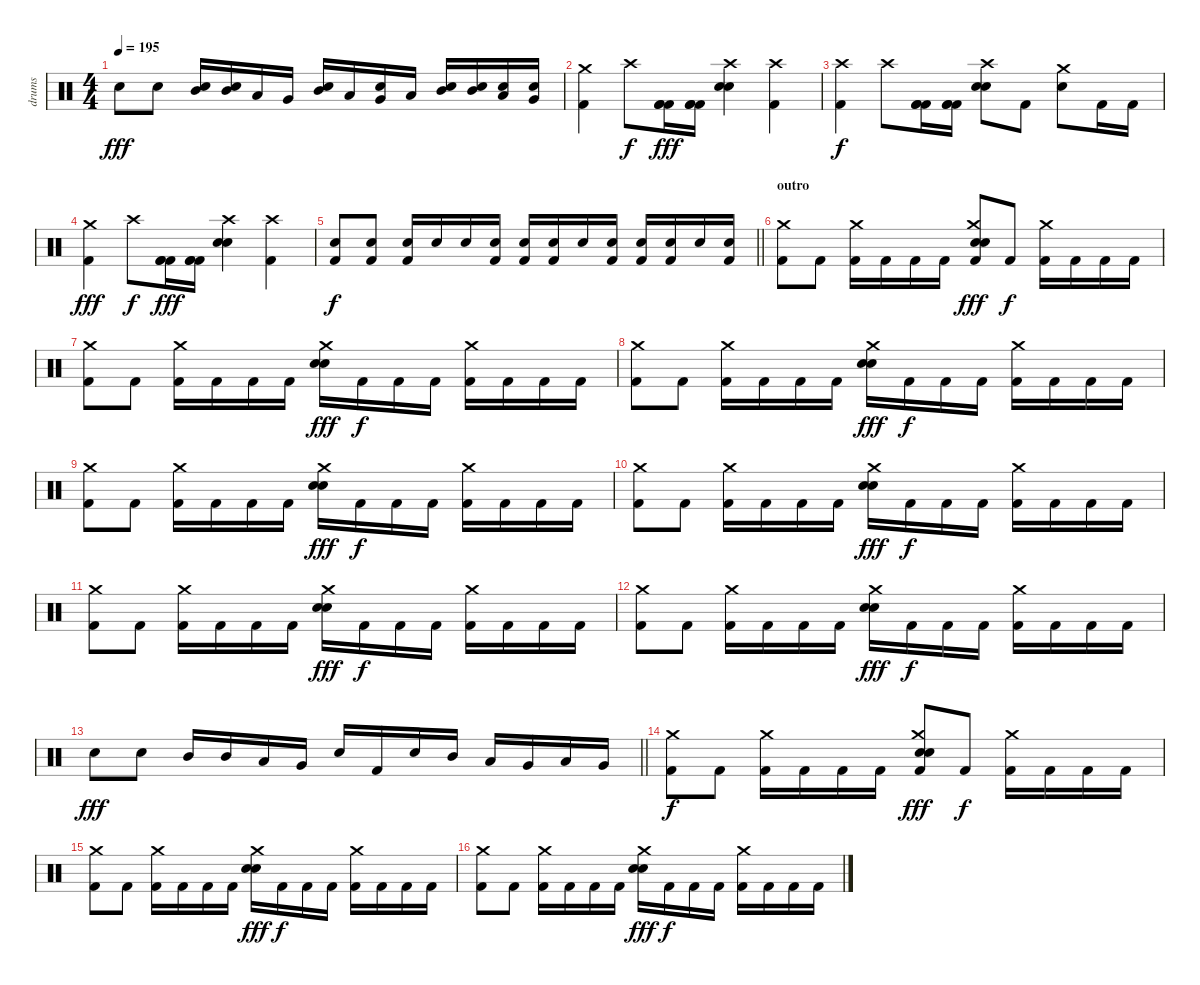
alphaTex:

\track ("drums" "drums") {instrument percussion bank 16}
\staff {score}
\articulation defaults
\ts (4 4)
\tempo 195
\clef neutral
\ks c "Electric Snare (hit)".8{dy fff} "Electric Snare (hit)".8
("Mid Tom (hit)" "Electric Snare (hit)").16 ("Mid Tom (hit)" "Electric Snare (hit)").16 "Low Tom (hit)".16 "Very Low Tom (hit)".16 ("Electric Snare (hit)" "Mid Tom (hit)").16 "Low Tom (hit)".16 ("Electric Snare (hit)" "Very Low Tom (hit)").16 "Low Tom (hit)".16 ("Mid Tom (hit)" "Electric Snare (hit)").16 ("Mid Tom (hit)" "Electric Snare (hit)").16 ("Low Tom (hit)" "Electric Snare (hit)").16 ("Very Low Tom (hit)" "Electric Snare (hit)").16 |
("Crash medium (hit)" "Kick (hit) 2").4 "Crash high (hit)".8{dy f} ("Kick (hit) 2" "Kick (hit) 2" "Kick (hit) 2").16{dy fff} ("Kick (hit) 2" "Kick (hit) 2" "Kick (hit) 2").16 ("Crash high (hit)" "Electric Snare (hit)" "Electric Snare (hit)").4 ("Crash high (hit)" "Kick (hit) 2").4 |
("Crash high (hit)" "Kick (hit) 2").4{dy f} "Crash high (hit)".8 ("Kick (hit) 2" "Kick (hit) 2" "Kick (hit) 2").16 ("Kick (hit) 2" "Kick (hit) 2" "Kick (hit) 2").16 ("Crash high (hit)" "Electric Snare (hit)" "Electric Snare (hit)").8 "Kick (hit) 2".8 ("Crash medium (hit)" "Electric Snare (hit)").8 "Kick (hit) 2".16 "Kick (hit) 2".16 |
("Crash medium (hit)" "Kick (hit) 2").4{dy fff} "Crash high (hit)".8{dy f} ("Kick (hit) 2" "Kick (hit) 2" "Kick (hit) 2").16{dy fff} ("Kick (hit) 2" "Kick (hit) 2" "Kick (hit) 2").16 ("Crash high (hit)" "Electric Snare (hit)" "Electric Snare (hit)").4 ("Crash high (hit)" "Kick (hit) 2").4 |
\barLineRight lightlight
("Electric Snare (hit)" "Kick (hit) 2").8{dy f} ("Electric Snare (hit)" "Kick (hit) 2").8 ("Electric Snare (hit)" "Kick (hit) 2").16 "Electric Snare (hit)".16 "Electric Snare (hit)".16 ("Electric Snare (hit)" "Kick (hit) 2").16 ("Electric Snare (hit)" "Kick (hit) 2").16 ("Electric Snare (hit)" "Kick (hit) 2").16 "Electric Snare (hit)".16 ("Electric Snare (hit)" "Kick (hit) 2").16 ("Electric Snare (hit)" "Kick (hit) 2").16 ("Electric Snare (hit)" "Kick (hit) 2").16 "Electric Snare (hit)".16 ("Electric Snare (hit)" "Kick (hit) 2").16 |
\section ("" "outro")
("Crash medium (hit)" "Kick (hit) 2").8{volume 16} "Kick (hit) 2".8 ("Crash medium (hit)" "Kick (hit) 2").16 "Kick (hit) 2".16 "Kick (hit) 2".16 "Kick (hit) 2".16 ("Crash medium (hit)" "Electric Snare (hit)" "Electric Snare (hit)" "Kick (hit) 2").8{dy fff} "Kick (hit) 2".8{dy f} ("Crash medium (hit)" "Kick (hit) 2").16 "Kick (hit) 2".16 "Kick (hit) 2".16 "Kick (hit) 2".16 |
("Crash medium (hit)" "Kick (hit) 2").8 "Kick (hit) 2".8 ("Crash medium (hit)" "Kick (hit) 2").16 "Kick (hit) 2".16 "Kick (hit) 2".16 "Kick (hit) 2".16 ("Crash medium (hit)" "Electric Snare (hit)" "Electric Snare (hit)").16{dy fff} "Kick (hit) 2".16{dy f} "Kick (hit) 2".16 "Kick (hit) 2".16 ("Crash medium (hit)" "Kick (hit) 2").16 "Kick (hit) 2".16 "Kick (hit) 2".16 "Kick (hit) 2".16 |
("Crash medium (hit)" "Kick (hit) 2").8 "Kick (hit) 2".8 ("Crash medium (hit)" "Kick (hit) 2").16 "Kick (hit) 2".16 "Kick (hit) 2".16 "Kick (hit) 2".16 ("Crash medium (hit)" "Electric Snare (hit)" "Electric Snare (hit)").16{dy fff} "Kick (hit) 2".16{dy f} "Kick (hit) 2".16 "Kick (hit) 2".16 ("Crash medium (hit)" "Kick (hit) 2").16 "Kick (hit) 2".16 "Kick (hit) 2".16 "Kick (hit) 2".16 |
("Crash medium (hit)" "Kick (hit) 2").8 "Kick (hit) 2".8 ("Crash medium (hit)" "Kick (hit) 2").16 "Kick (hit) 2".16 "Kick (hit) 2".16 "Kick (hit) 2".16 ("Crash medium (hit)" "Electric Snare (hit)" "Electric Snare (hit)").16{dy fff} "Kick (hit) 2".16{dy f} "Kick (hit) 2".16 "Kick (hit) 2".16 ("Crash medium (hit)" "Kick (hit) 2").16 "Kick (hit) 2".16 "Kick (hit) 2".16 "Kick (hit) 2".16 |
("Crash medium (hit)" "Kick (hit) 2").8 "Kick (hit) 2".8 ("Crash medium (hit)" "Kick (hit) 2").16 "Kick (hit) 2".16 "Kick (hit) 2".16 "Kick (hit) 2".16 ("Crash medium (hit)" "Electric Snare (hit)" "Electric Snare (hit)").16{dy fff} "Kick (hit) 2".16{dy f} "Kick (hit) 2".16 "Kick (hit) 2".16 ("Crash medium (hit)" "Kick (hit) 2").16 "Kick (hit) 2".16 "Kick (hit) 2".16 "Kick (hit) 2".16 |
("Crash medium (hit)" "Kick (hit) 2").8 "Kick (hit) 2".8 ("Crash medium (hit)" "Kick (hit) 2").16 "Kick (hit) 2".16 "Kick (hit) 2".16 "Kick (hit) 2".16 ("Crash medium (hit)" "Electric Snare (hit)" "Electric Snare (hit)").16{dy fff} "Kick (hit) 2".16{dy f} "Kick (hit) 2".16 "Kick (hit) 2".16 ("Crash medium (hit)" "Kick (hit) 2").16 "Kick (hit) 2".16 "Kick (hit) 2".16 "Kick (hit) 2".16 |
("Crash medium (hit)" "Kick (hit) 2").8 "Kick (hit) 2".8 ("Crash medium (hit)" "Kick (hit) 2").16 "Kick (hit) 2".16 "Kick (hit) 2".16 "Kick (hit) 2".16 ("Crash medium (hit)" "Electric Snare (hit)" "Electric Snare (hit)").16{dy fff} "Kick (hit) 2".16{dy f} "Kick (hit) 2".16 "Kick (hit) 2".16 ("Crash medium (hit)" "Kick (hit) 2").16 "Kick (hit) 2".16 "Kick (hit) 2".16 "Kick (hit) 2".16 |
\barLineRight lightlight "Electric Snare (hit)".8{dy fff} "Electric Snare (hit)".8 "Mid Tom (hit)".16 "Mid Tom (hit)".16 "Low Tom (hit)".16 "Very Low Tom (hit)".16 "Electric Snare (hit)".16 "Kick (hit) 2".16 "Electric Snare (hit)".16 "Mid Tom (hit)".16 "Low Tom (hit)".16 "Very Low Tom (hit)".16 "Low Tom (hit)".16 "Very Low Tom (hit)".16
|
("Crash medium (hit)" "Kick (hit) 2").8{dy f volume 16} "Kick (hit) 2".8 ("Crash medium (hit)" "Kick (hit) 2").16 "Kick (hit) 2".16 "Kick (hit) 2".16 "Kick (hit) 2".16 ("Crash medium (hit)" "Electric Snare (hit)" "Electric Snare (hit)" "Kick (hit) 2").8{dy fff} "Kick (hit) 2".8{dy f} ("Crash medium (hit)" "Kick (hit) 2").16 "Kick (hit) 2".16 "Kick (hit) 2".16 "Kick (hit) 2".16 |
("Crash medium (hit)" "Kick (hit) 2").8 "Kick (hit) 2".8 ("Crash medium (hit)" "Kick (hit) 2").16 "Kick (hit) 2".16 "Kick (hit) 2".16 "Kick (hit) 2".16 ("Crash medium (hit)" "Electric Snare (hit)" "Electric Snare (hit)").16{dy fff} "Kick (hit) 2".16{dy f} "Kick (hit) 2".16 "Kick (hit) 2".16 ("Crash medium (hit)" "Kick (hit) 2").16 "Kick (hit) 2".16 "Kick (hit) 2".16 "Kick (hit) 2".16 |
("Crash medium (hit)" "Kick (hit) 2").8 "Kick (hit) 2".8 ("Crash medium (hit)" "Kick (hit) 2").16 "Kick (hit) 2".16 "Kick (hit) 2".16 "Kick (hit) 2".16 ("Crash medium (hit)" "Electric Snare (hit)" "Electric Snare (hit)").16{dy fff} "Kick (hit) 2".16{dy f} "Kick (hit) 2".16 "Kick (hit) 2".16 ("Crash medium (hit)" "Kick (hit) 2").16 "Kick (hit) 2".16 "Kick (hit) 2".16 "Kick (hit) 2".16
